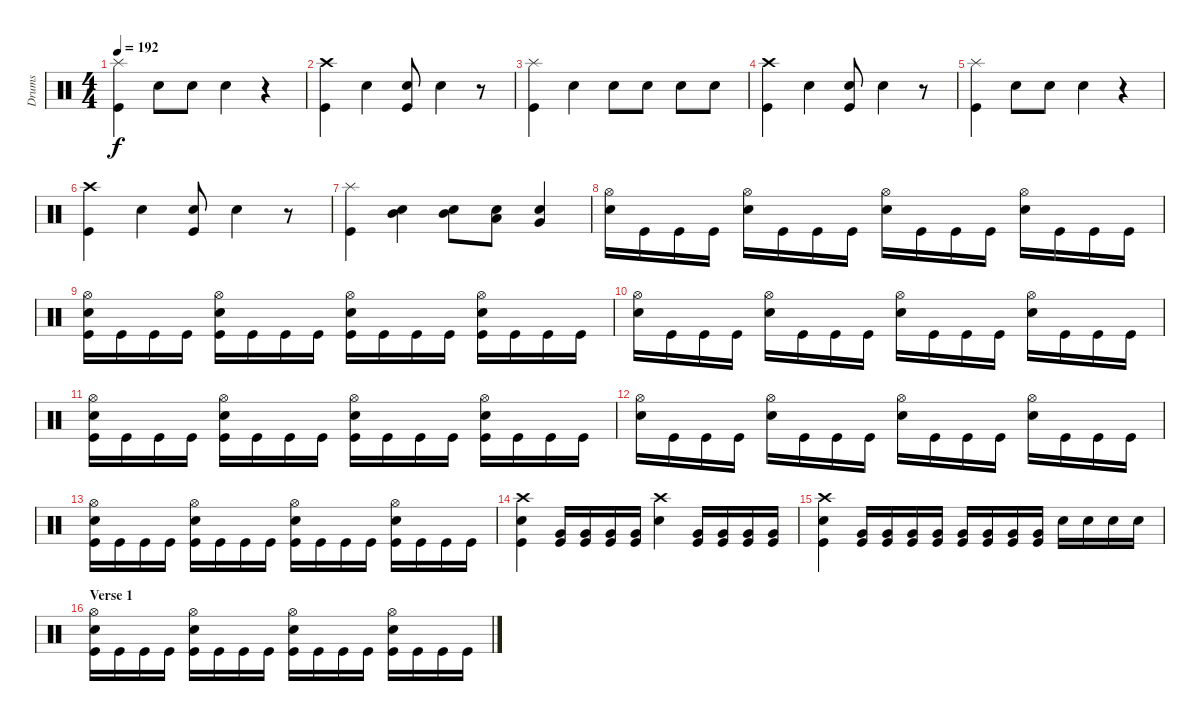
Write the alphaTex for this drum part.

\track ("Drums" "Drums") {instrument percussion}
\staff {score}
\articulation defaults
\ts (4 4)
\tempo 192
\clef neutral
\ks c
("Splash (hit)" "Kick (hit)").4{dy f} "Snare (hit) 2".8 "Snare (hit) 2".8 "Snare (hit) 2".4 r.4 |
("Crash high (hit)" "Kick (hit)").4 "Snare (hit) 2".4 ("Snare (hit) 2" "Kick (hit)").8 "Snare (hit) 2".4 r.8 |
("Splash (hit)" "Kick (hit)").4 "Snare (hit) 2".4 "Snare (hit) 2".8 "Snare (hit) 2".8 "Snare (hit) 2".8 "Snare (hit) 2".8 |
("Crash high (hit)" "Kick (hit)").4 "Snare (hit) 2".4 ("Snare (hit) 2" "Kick (hit)").8 "Snare (hit) 2".4 r.8 |
("Splash (hit)" "Kick (hit)").4 "Snare (hit) 2".8 "Snare (hit) 2".8 "Snare (hit) 2".4 r.4 |
("Crash high (hit)" "Kick (hit)").4 "Snare (hit) 2"{tr (38 16)}.4 ("Snare (hit) 2" "Kick (hit)").8 "Snare (hit) 2".4 r.8 |
("Splash (hit)" "Kick (hit)").4 ("Snare (hit) 2" "Mid Tom (hit)").4 ("Snare (hit) 2" "Mid Tom (hit)").8 ("Snare (hit) 2" "Low Tom (hit)").8 ("Snare (hit) 2" "Very Low Tom (hit)").4 |
("Hi-Hat (open)" "Snare (hit) 2").16 "Kick (hit)".16 "Kick (hit)".16 "Kick (hit)".16 ("Hi-Hat (open)" "Snare (hit) 2").16 "Kick (hit)".16 "Kick (hit)".16 "Kick (hit)".16 ("Hi-Hat (open)" "Snare (hit) 2").16 "Kick (hit)".16 "Kick (hit)".16 "Kick (hit)".16 ("Hi-Hat (open)" "Snare (hit) 2").16 "Kick (hit)".16 "Kick (hit)".16 "Kick (hit)".16 |
("Hi-Hat (open)" "Snare (hit) 2" "Kick (hit)").16 "Kick (hit)".16 "Kick (hit)".16 "Kick (hit)".16 ("Hi-Hat (open)" "Snare (hit) 2" "Kick (hit)").16 "Kick (hit)".16 "Kick (hit)".16 "Kick (hit)".16 ("Hi-Hat (open)" "Snare (hit) 2" "Kick (hit)").16 "Kick (hit)".16 "Kick (hit)".16 "Kick (hit)".16 ("Hi-Hat (open)" "Snare (hit) 2" "Kick (hit)").16 "Kick (hit)".16 "Kick (hit)".16 "Kick (hit)".16 |
("Hi-Hat (open)" "Snare (hit) 2").16 "Kick (hit)".16 "Kick (hit)".16 "Kick (hit)".16 ("Hi-Hat (open)" "Snare (hit) 2").16 "Kick (hit)".16 "Kick (hit)".16 "Kick (hit)".16 ("Hi-Hat (open)" "Snare (hit) 2").16 "Kick (hit)".16 "Kick (hit)".16 "Kick (hit)".16 ("Hi-Hat (open)" "Snare (hit) 2").16 "Kick (hit)".16 "Kick (hit)".16 "Kick (hit)".16 |
("Hi-Hat (open)" "Snare (hit) 2" "Kick (hit)").16 "Kick (hit)".16 "Kick (hit)".16 "Kick (hit)".16 ("Hi-Hat (open)" "Snare (hit) 2" "Kick (hit)").16 "Kick (hit)".16 "Kick (hit)".16 "Kick (hit)".16 ("Hi-Hat (open)" "Snare (hit) 2" "Kick (hit)").16 "Kick (hit)".16 "Kick (hit)".16 "Kick (hit)".16 ("Hi-Hat (open)" "Snare (hit) 2" "Kick (hit)").16 "Kick (hit)".16 "Kick (hit)".16 "Kick (hit)".16 |
("Hi-Hat (open)" "Snare (hit) 2").16 "Kick (hit)".16 "Kick (hit)".16 "Kick (hit)".16 ("Hi-Hat (open)" "Snare (hit) 2").16 "Kick (hit)".16 "Kick (hit)".16 "Kick (hit)".16 ("Hi-Hat (open)" "Snare (hit) 2").16 "Kick (hit)".16 "Kick (hit)".16 "Kick (hit)".16 ("Hi-Hat (open)" "Snare (hit) 2").16 "Kick (hit)".16 "Kick (hit)".16 "Kick (hit)".16 |
("Hi-Hat (open)" "Snare (hit) 2" "Kick (hit)").16 "Kick (hit)".16 "Kick (hit)".16 "Kick (hit)".16 ("Hi-Hat (open)" "Snare (hit) 2" "Kick (hit)").16 "Kick (hit)".16 "Kick (hit)".16 "Kick (hit)".16 ("Hi-Hat (open)" "Snare (hit) 2" "Kick (hit)").16 "Kick (hit)".16 "Kick (hit)".16 "Kick (hit)".16 ("Hi-Hat (open)" "Snare (hit) 2" "Kick (hit)").16 "Kick (hit)".16 "Kick (hit)".16 "Kick (hit)".16 |
("Crash high (hit)" "Snare (hit) 2" "Kick (hit)").4 ("Very Low Tom (hit)" "Kick (hit)").16 ("Very Low Tom (hit)" "Kick (hit)").16 ("Very Low Tom (hit)" "Kick (hit)").16 ("Very Low Tom (hit)" "Kick (hit)").16 ("Crash high (hit)" "Snare (hit) 2").4 ("Very Low Tom (hit)" "Kick (hit)").16 ("Very Low Tom (hit)" "Kick (hit)").16 ("Very Low Tom (hit)" "Kick (hit)").16 ("Very Low Tom (hit)" "Kick (hit)").16 |
("Crash high (hit)" "Snare (hit) 2" "Kick (hit)").4 ("Very Low Tom (hit)" "Kick (hit)").16 ("Very Low Tom (hit)" "Kick (hit)").16 ("Very Low Tom (hit)" "Kick (hit)").16 ("Very Low Tom (hit)" "Kick (hit)").16 ("Very Low Tom (hit)" "Kick (hit)").16 ("Very Low Tom (hit)" "Kick (hit)").16 ("Very Low Tom (hit)" "Kick (hit)").16 ("Very Low Tom (hit)" "Kick (hit)").16 "Snare (hit) 2".16 "Snare (hit) 2".16 "Snare (hit) 2".16 "Snare (hit) 2".16 |
\section ("" "Verse 1")
("Hi-Hat (open)" "Snare (hit) 2" "Kick (hit)").16 "Kick (hit)".16 "Kick (hit)".16 "Kick (hit)".16 ("Hi-Hat (open)" "Snare (hit) 2" "Kick (hit)").16 "Kick (hit)".16 "Kick (hit)".16 "Kick (hit)".16 ("Hi-Hat (open)" "Snare (hit) 2" "Kick (hit)").16 "Kick (hit)".16 "Kick (hit)".16 "Kick (hit)".16 ("Hi-Hat (open)" "Snare (hit) 2" "Kick (hit)").16 "Kick (hit)".16 "Kick (hit)".16 "Kick (hit)".16
